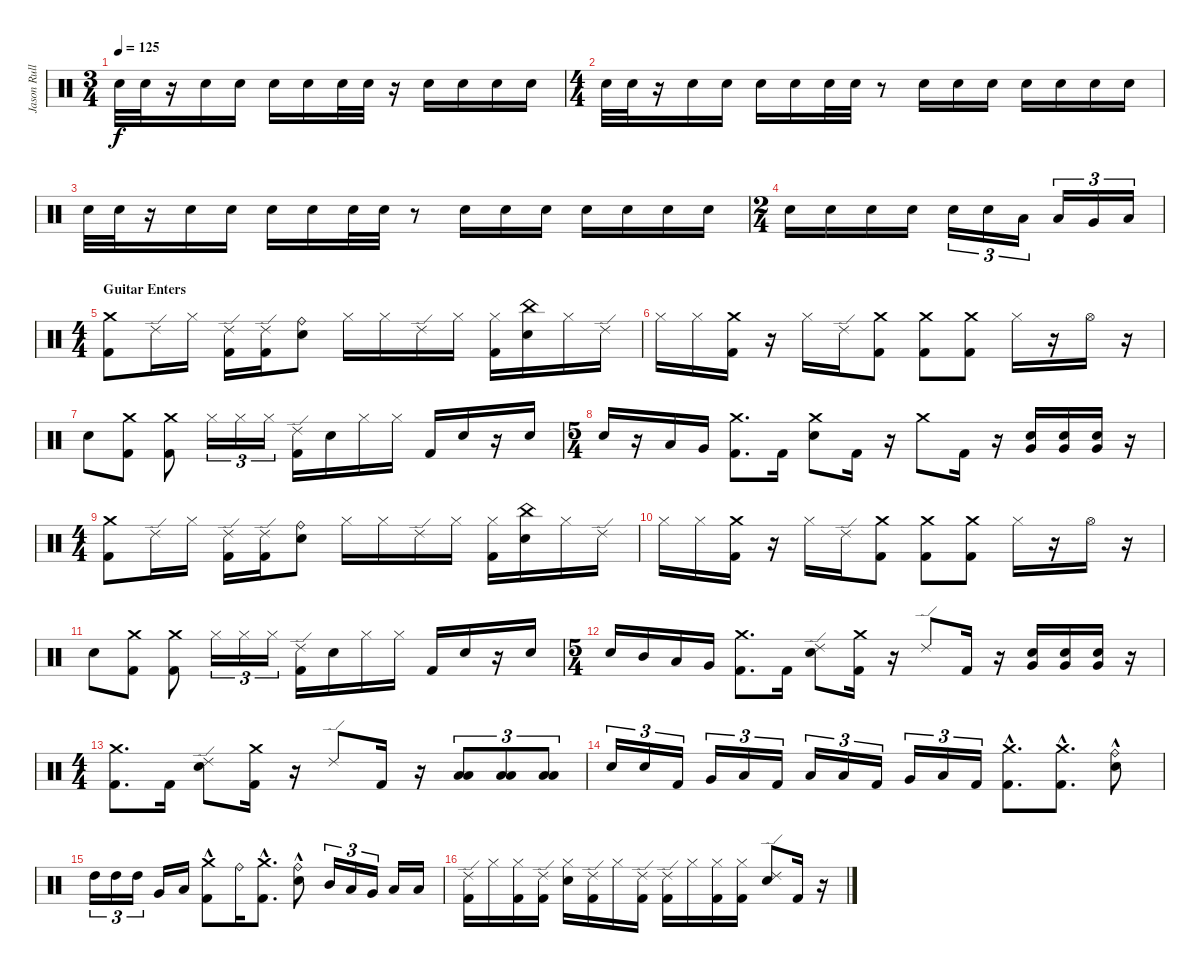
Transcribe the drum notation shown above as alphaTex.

\track ("Jason Rullo" "Jason Rull") {instrument percussion}
\staff {score}
\articulation defaults
\ts (3 4)
\tempo 125
\clef neutral
\ks c "Electric Snare (hit)".32{dy f volume 5} "Electric Snare (hit)".32{volume 5}
r.16 "Electric Snare (hit)".16{volume 6} "Electric Snare (hit)".16{volume 6} "Electric Snare (hit)".16{volume 6} "Electric Snare (hit)".16{volume 6} "Electric Snare (hit)".32{volume 6} "Electric Snare (hit)".32{volume 6} r.16 "Electric Snare (hit)".16{volume 7} "Electric Snare (hit)".16{volume 7} "Electric Snare (hit)".16{volume 7} "Electric Snare (hit)".16{volume 7} |
\ts (4 4)
"Electric Snare (hit)".32{volume 8} "Electric Snare (hit)".32{volume 8} r.16 "Electric Snare (hit)".16{volume 8} "Electric Snare (hit)".16{volume 8} "Electric Snare (hit)".16{volume 8} "Electric Snare (hit)".16{volume 9} "Electric Snare (hit)".32{volume 9} "Electric Snare (hit)".32 r.8 "Electric Snare (hit)".16{volume 10} "Electric Snare (hit)".16{volume 10} "Electric Snare (hit)".16{volume 10} "Electric Snare (hit)".16{volume 10} "Electric Snare (hit)".16{volume 10} "Electric Snare (hit)".16{volume 10} "Electric Snare (hit)".16{volume 11} |
"Electric Snare (hit)".32{volume 11} "Electric Snare (hit)".32{volume 11} r.16 "Electric Snare (hit)".16{volume 11} "Electric Snare (hit)".16{volume 12} "Electric Snare (hit)".16{volume 12} "Electric Snare (hit)".16{volume 12} "Electric Snare (hit)".32{volume 12} "Electric Snare (hit)".32{volume 12} r.8 "Electric Snare (hit)".16{volume 13} "Electric Snare (hit)".16{volume 13} "Electric Snare (hit)".16{volume 13} "Electric Snare (hit)".16{volume 13} "Electric Snare (hit)".16{volume 14} "Electric Snare (hit)".16{volume 14} "Electric Snare (hit)".16{volume 14} |
\ts (2 4)
"Electric Snare (hit)".16{volume 14} "Electric Snare (hit)".16{volume 14} "Electric Snare (hit)".16{volume 15} "Electric Snare (hit)".16{volume 15} "Electric Snare (hit)".16{tu (3 2) volume 15} "Electric Snare (hit)".16{tu (3 2) volume 15} "Low Tom (hit)".16{tu (3 2) volume 15} "Low Tom (hit)".16{tu (3 2) volume 15} "Very Low Tom (hit)".16{tu (3 2) volume 16} "Low Floor Tom (hit)".16{tu (3 2) volume 16} |
\ts (4 4)
\section ("" "Guitar Enters")
("Crash medium (hit)" "Kick (hit) 2").8{volume 16} "Ride (edge) 2".16 "Hi-Hat (closed)".16 ("Ride (edge) 2" "Kick (hit) 2").16 ("Ride (edge) 2" "Kick (hit) 2").16 ("Ride (bell)" "Electric Snare (hit)").8 "Hi-Hat (closed)".16 "Hi-Hat (closed)".16 "Ride (edge) 2".16 "Hi-Hat (closed)".16 ("Hi-Hat (closed)" "Kick (hit) 2").16 ("China (hit)" "Electric Snare (hit)").16 "Hi-Hat (closed)".16 "Ride (edge) 2".16 |
"Hi-Hat (closed)".16 "Hi-Hat (closed)".16 ("Crash medium (hit)" "Kick (hit) 2").16 r.16 "Hi-Hat (closed)".16 "Ride (edge) 2".16 ("Crash medium (hit)" "Kick (hit) 2").8 ("Crash medium (hit)" "Kick (hit) 2").8 ("Crash medium (hit)" "Kick (hit) 2").8 "Hi-Hat (closed)".16 r.16 "Hi-Hat (open)".16 r.16 |
"Electric Snare (hit)".8 ("Crash medium (hit)" "Kick (hit) 2").8 ("Crash medium (hit)" "Kick (hit) 2").8 "Hi-Hat (closed)".16{tu (3 2)} "Hi-Hat (closed)".16{tu (3 2)} "Hi-Hat (closed)".16{tu (3 2)} ("Ride (edge) 2" "Kick (hit) 2").16 "Electric Snare (hit)".16 "Hi-Hat (closed)".16 "Hi-Hat (closed)".16 "Kick (hit) 2".16 "Electric Snare (hit)".16 r.16 "Electric Snare (hit)".16 |
\ts (5 4)
"Electric Snare (hit)".16 r.16 "Low Tom (hit)".16 "Very Low Tom (hit)".16 ("Crash medium (hit)" "Kick (hit) 2").8{d} "Kick (hit) 2".16 ("Crash medium (hit)" "Electric Snare (hit)").8 "Kick (hit) 2".16 r.16 "Crash medium (hit)".8 "Kick (hit) 2".16 r.16 ("Very Low Tom (hit)" "Electric Snare (hit)").16 ("Very Low Tom (hit)" "Electric Snare (hit)").16 ("Very Low Tom (hit)" "Electric Snare (hit)").16 r.16 |
\ts (4 4)
("Crash medium (hit)" "Kick (hit) 2").8 "Ride (edge) 2".16 "Hi-Hat (closed)".16 ("Ride (edge) 2" "Kick (hit) 2").16 ("Ride (edge) 2" "Kick (hit) 2").16 ("Ride (bell)" "Electric Snare (hit)").8 "Hi-Hat (closed)".16 "Hi-Hat (closed)".16 "Ride (edge) 2".16 "Hi-Hat (closed)".16 ("Hi-Hat (closed)" "Kick (hit) 2").16 ("China (hit)" "Electric Snare (hit)").16 "Hi-Hat (closed)".16 "Ride (edge) 2".16 |
"Hi-Hat (closed)".16 "Hi-Hat (closed)".16 ("Crash medium (hit)" "Kick (hit) 2").16 r.16 "Hi-Hat (closed)".16 "Ride (edge) 2".16 ("Crash medium (hit)" "Kick (hit) 2").8 ("Crash medium (hit)" "Kick (hit) 2").8 ("Crash medium (hit)" "Kick (hit) 2").8 "Hi-Hat (closed)".16 r.16 "Hi-Hat (open)".16 r.16 |
"Electric Snare (hit)".8 ("Crash medium (hit)" "Kick (hit) 2").8 ("Crash medium (hit)" "Kick (hit) 2").8 "Hi-Hat (closed)".16{tu (3 2)} "Hi-Hat (closed)".16{tu (3 2)} "Hi-Hat (closed)".16{tu (3 2)} ("Ride (edge) 2" "Kick (hit) 2").16 "Electric Snare (hit)".16 "Hi-Hat (closed)".16 "Hi-Hat (closed)".16 "Kick (hit) 2".16 "Electric Snare (hit)".16 r.16 "Electric Snare (hit)".16 |
\ts (5 4)
"Electric Snare (hit)".16 "Mid Tom (hit)".16 "Low Tom (hit)".16 "Very Low Tom (hit)".16 ("Crash medium (hit)" "Kick (hit) 2").8{d} "Kick (hit) 2".16 ("Ride (edge) 2" "Electric Snare (hit)").8 ("Crash medium (hit)" "Kick (hit) 2").16 r.16 "Ride (edge) 2".8 "Kick (hit) 2".16 r.16 ("Very Low Tom (hit)" "Electric Snare (hit)").16 ("Very Low Tom (hit)" "Electric Snare (hit)").16 ("Very Low Tom (hit)" "Electric Snare (hit)").16 r.16 |
\ts (4 4)
("Crash medium (hit)" "Kick (hit) 2").8{d} "Kick (hit) 2".16 ("Ride (edge) 2" "Electric Snare (hit)").8 ("Crash medium (hit)" "Kick (hit) 2").16 r.16 "Ride (edge) 2".8 "Kick (hit) 2".16 r.16 ("Low Tom (hit)" "Low Floor Tom (hit)").8{tu (3 2)} ("Low Tom (hit)" "Low Floor Tom (hit)").8{tu (3 2)} ("Low Tom (hit)" "Low Floor Tom (hit)").8{tu (3 2)} |
"Electric Snare (hit)".16{tu (3 2)} "Electric Snare (hit)".16{tu (3 2)} "Kick (hit) 2".16{tu (3 2)} "Very Low Tom (hit)".16{tu (3 2)} "Low Floor Tom (hit)".16{tu (3 2)} "Kick (hit) 2".16{tu (3 2)} "Low Tom (hit)".16{tu (3 2)} "Low Tom (hit)".16{tu (3 2)} "Kick (hit) 2".16{tu (3 2)} "Very Low Tom (hit)".16{tu (3 2)} "Low Floor Tom (hit)".16{tu (3 2)} "Kick (hit) 2".16{tu (3 2)} ("Crash medium (hit)"{hac} "Kick (hit) 2"{hac}).8{d} ("Crash medium (hit)"{hac} "Kick (hit) 2"{hac}).8{d} ("Ride (bell)"{hac} "Electric Snare (hit)"{hac}).8 |
"High Tom (hit)".16{tu (3 2)} "High Tom (hit)".16{tu (3 2)} "High Tom (hit)".16{tu (3 2)} "Very Low Tom (hit)".16 "Low Floor Tom (hit)".16 ("Crash medium (hit)"{hac} "Kick (hit) 2"{hac}).8 "Ride (bell)".16 ("Crash medium (hit)"{hac} "Kick (hit) 2"{hac}).8{d} ("Ride (bell)" "Electric Snare (hit)"{hac}).8 "Mid Tom (hit)".16{tu (3 2)} "Low Tom (hit)".16{tu (3 2)} "Very Low Tom (hit)".16{tu (3 2)} "Low Floor Tom (hit)".16 "Low Floor Tom (hit)".16 |
("Ride (edge) 2" "Kick (hit) 2").16 "Hi-Hat (closed)".16 ("Hi-Hat (closed)" "Kick (hit) 2").16 ("Ride (edge) 2" "Kick (hit) 2").16 ("Hi-Hat (closed)" "Electric Snare (hit)").16 ("Ride (edge) 2" "Kick (hit) 2").16 "Hi-Hat (closed)".16 ("Ride (edge) 2" "Kick (hit) 2").16 ("Ride (edge) 2" "Kick (hit) 2").16 "Hi-Hat (closed)".16 ("Hi-Hat (closed)" "Kick (hit) 2").16 ("Hi-Hat (closed)" "Kick (hit) 2").16 ("Ride (edge) 2" "Electric Snare (hit)").8 "Kick (hit) 2".16 r.16
